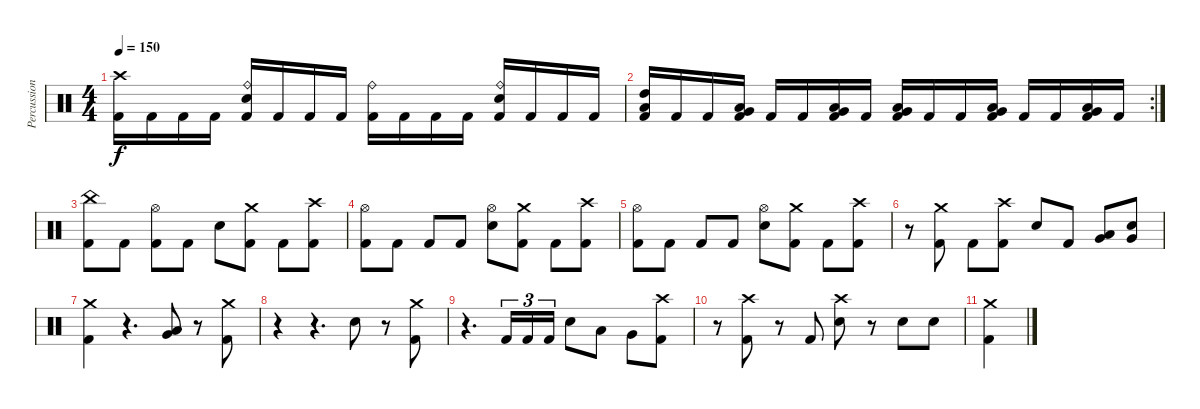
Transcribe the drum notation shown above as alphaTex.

\track ("Percussion" "Percussion") {instrument percussion}
\staff {score}
\articulation defaults
\ts (4 4)
\tempo 150
\clef neutral
\ks c
("Crash high (hit)" "Kick (hit) 2").16{dy f} "Kick (hit) 2".16 "Kick (hit) 2".16 "Kick (hit) 2".16 ("Ride (bell)" "Snare (hit) 2" "Kick (hit) 2").16 "Kick (hit) 2".16 "Kick (hit) 2".16 "Kick (hit) 2".16 ("Ride (bell)" "Kick (hit) 2").16 "Kick (hit) 2".16 "Kick (hit) 2".16 "Kick (hit) 2".16 ("Ride (bell)" "Snare (hit) 2" "Kick (hit) 2").16 "Kick (hit) 2".16 "Kick (hit) 2".16 "Kick (hit) 2".16 |
\rc 2
("High Tom (hit)" "Low Tom (hit)" "Kick (hit) 2").16 "Kick (hit) 2".16 "Kick (hit) 2".16 ("Low Tom (hit)" "Very Low Tom (hit)" "Kick (hit) 2").16 "Kick (hit) 2".16 "Kick (hit) 2".16 ("Very Low Tom (hit)" "Low Floor Tom (hit)" "Kick (hit) 2").16 "Kick (hit) 2".16 ("Low Tom (hit)" "Very Low Tom (hit)" "Kick (hit) 2").16 "Kick (hit) 2".16 "Kick (hit) 2".16 ("Very Low Tom (hit)" "Low Floor Tom (hit)" "Kick (hit) 2").16 "Kick (hit) 2".16 "Kick (hit) 2".16 ("Very Low Tom (hit)" "Low Floor Tom (hit)" "Kick (hit) 2").16 "Kick (hit) 2".16 |
("China (hit)" "Kick (hit) 2").8 "Kick (hit) 2".8 ("Hi-Hat (open)" "Kick (hit) 2").8 "Kick (hit) 2".8 "Snare (hit) 2".8 ("Crash medium (hit)" "Kick (hit) 2").8 "Kick (hit) 2".8 ("Crash high (hit)" "Kick (hit) 2").8 |
("Hi-Hat (open)" "Kick (hit) 2").8 "Kick (hit) 2".8 "Kick (hit) 2".8 "Kick (hit) 2".8 ("Hi-Hat (open)" "Snare (hit) 2").8 ("Crash medium (hit)" "Kick (hit) 2").8 "Kick (hit) 2".8 ("Crash high (hit)" "Kick (hit) 2").8 |
("Hi-Hat (open)" "Kick (hit) 2").8 "Kick (hit) 2".8 "Kick (hit) 2".8 "Kick (hit) 2".8 ("Hi-Hat (open)" "Snare (hit) 2").8 ("Crash medium (hit)" "Kick (hit) 2").8 "Kick (hit) 2".8 ("Crash high (hit)" "Kick (hit) 2").8 |
r.8 ("Crash medium (hit)" "Kick (hit) 2").8 "Kick (hit) 2".8 ("Crash high (hit)" "Kick (hit) 2").8 "Snare (hit) 2".8 "Kick (hit) 2".8 ("Low Tom (hit)" "Very Low Tom (hit)").8 ("Very Low Tom (hit)" "Snare (hit)").8 |
("Crash medium (hit)" "Kick (hit) 2").4 r.4{d} ("Low Tom (hit)" "Very Low Tom (hit)").8 r.8 ("Crash medium (hit)" "Kick (hit) 2").8 |
r.4 r.4{d} "Snare (hit) 2".8 r.8 ("Crash medium (hit)" "Kick (hit) 2").8 |
r.4{d} "Kick (hit) 2".16{tu (3 2)} "Kick (hit) 2".16{tu (3 2)} "Kick (hit) 2".16{tu (3 2)} "Snare (hit) 2".8 "Low Tom (hit)".8 "Very Low Tom (hit)".8 ("Crash high (hit)" "Kick (hit) 2").8 |
r.8 ("Crash high (hit)" "Kick (hit) 2").8 r.8 "Kick (hit) 2".8 ("Crash high (hit)" "Snare (hit) 2").8 r.8 "Snare (hit) 2".8 "Snare (hit) 2".8 |
("Crash medium (hit)" "Kick (hit) 2").4
